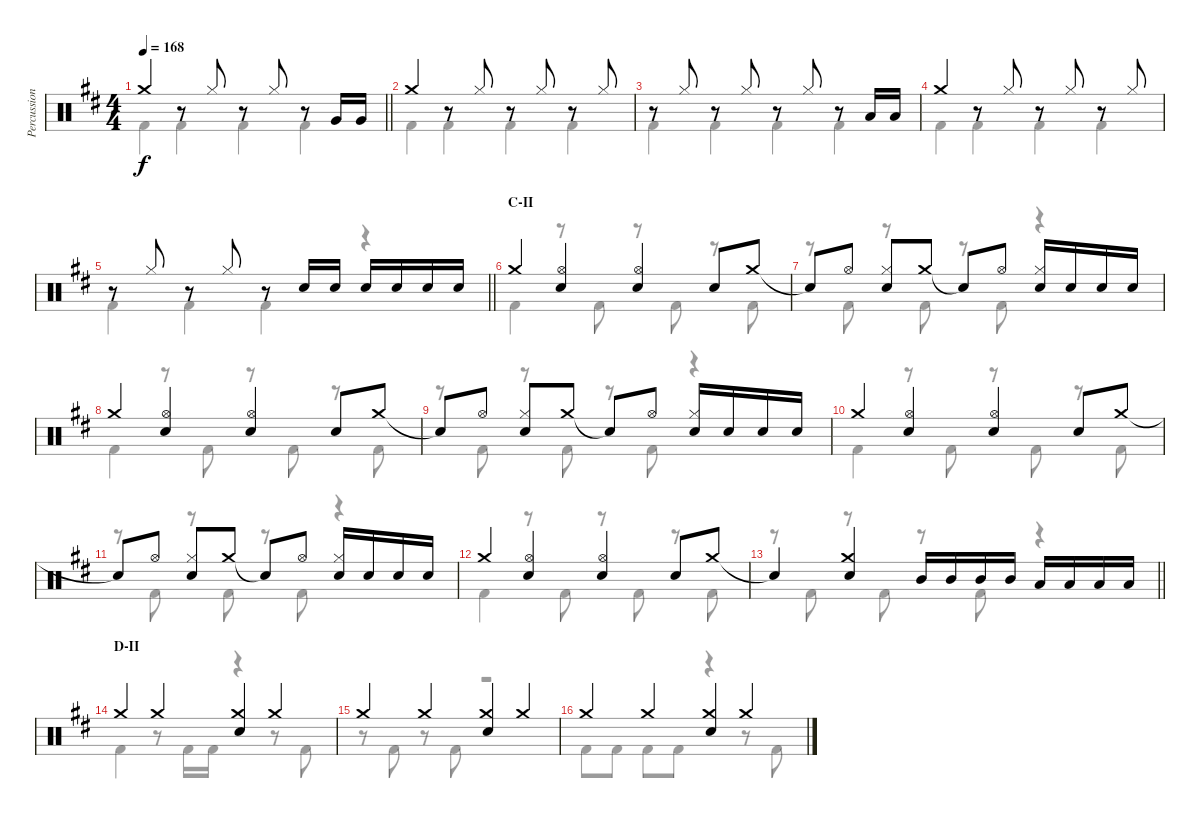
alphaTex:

\track ("Percussion" "Percussion") {instrument percussion}
\staff {score}
\articulation defaults
\voice
\ts (4 4)
\tempo 168
\clef neutral
\barLineRight lightlight
\ks d "Crash medium (hit)".4{dy f}
r.8 "Hi-Hat (closed)".8 r.8 "Hi-Hat (closed)".8 r.8 "Very Low Tom (hit)".16 "Very Low Tom (hit)".16 |
"Crash medium (hit)".4 r.8 "Hi-Hat (closed)".8 r.8 "Hi-Hat (closed)".8 r.8 "Hi-Hat (closed)".8 |
r.8 "Hi-Hat (closed)".8 r.8 "Hi-Hat (closed)".8 r.8 "Hi-Hat (closed)".8 r.8 "Low Tom (hit)".16 "Low Tom (hit)".16 |
"Crash medium (hit)".4 r.8 "Hi-Hat (closed)".8 r.8 "Hi-Hat (closed)".8 r.8 "Hi-Hat (closed)".8 |
\barLineRight lightlight
r.8 "Hi-Hat (closed)".8 r.8 "Hi-Hat (closed)".8 r.8 "Snare (hit) 2".16 "Snare (hit) 2".16 "Snare (hit) 2".16 "Snare (hit) 2".16 "Snare (hit) 2".16 "Snare (hit) 2".16 |
\section ("" "C-II")
"Crash medium (hit)".4 ("Hi-Hat (open)" "Snare (hit) 2").4 ("Hi-Hat (open)" "Snare (hit) 2").4 "Snare (hit) 2".8 "Crash medium (hit)".8 |
"Snare (hit)"{t}.8 "Hi-Hat (open)".8 ("Hi-Hat (closed)" "Snare (hit) 2").8 "Crash medium (hit)".8 "Snare (hit)"{t}.8 "Hi-Hat (open)".8 ("Hi-Hat (closed)" "Snare (hit) 2").16 "Snare (hit) 2".16 "Snare (hit) 2".16 "Snare (hit) 2".16 |
"Crash medium (hit)".4 ("Hi-Hat (open)" "Snare (hit) 2").4 ("Hi-Hat (open)" "Snare (hit) 2").4 "Snare (hit) 2".8 "Crash medium (hit)".8 |
"Snare (hit)"{t}.8 "Hi-Hat (open)".8 ("Hi-Hat (closed)" "Snare (hit) 2").8 "Crash medium (hit)".8 "Snare (hit)"{t}.8 "Hi-Hat (open)".8 ("Hi-Hat (closed)" "Snare (hit) 2").16 "Snare (hit) 2".16 "Snare (hit) 2".16 "Snare (hit) 2".16 |
"Crash medium (hit)".4 ("Hi-Hat (open)" "Snare (hit) 2").4 ("Hi-Hat (open)" "Snare (hit) 2").4 "Snare (hit) 2".8 "Crash medium (hit)".8 |
"Snare (hit)"{t}.8 "Hi-Hat (open)".8 ("Hi-Hat (closed)" "Snare (hit) 2").8 "Crash medium (hit)".8 "Snare (hit)"{t}.8 "Hi-Hat (open)".8 ("Hi-Hat (closed)" "Snare (hit) 2").16 "Snare (hit) 2".16 "Snare (hit) 2".16 "Snare (hit) 2".16 |
"Crash medium (hit)".4 ("Hi-Hat (open)" "Snare (hit) 2").4 ("Hi-Hat (open)" "Snare (hit) 2").4 "Snare (hit) 2".8 "Crash medium (hit)".8 |
\barLineRight lightlight "Snare (hit)"{t}.4
("Crash medium (hit)" "Snare (hit) 2").4 "Mid Tom (hit)".16 "Mid Tom (hit)".16 "Mid Tom (hit)".16 "Mid Tom (hit)".16 "Low Tom (hit)".16 "Low Tom (hit)".16 "Low Tom (hit)".16 "Low Tom (hit)".16 |
\section ("" "D-II")
"Crash medium (hit)".4 "Crash medium (hit)".4 ("Crash medium (hit)" "Snare (hit) 2").4 "Crash medium (hit)".4 |
"Crash medium (hit)".4 "Crash medium (hit)".4 ("Crash medium (hit)" "Snare (hit) 2").4 "Crash medium (hit)".4 |
"Crash medium (hit)".4 "Crash medium (hit)".4 ("Crash medium (hit)" "Snare (hit) 2").4 "Crash medium (hit)".4
\voice
\clef neutral
\ottava regular
\simile none
\barLineRight lightlight
\ks d "Kick (hit) 2".4{dy f} "Kick (hit) 2".4 "Kick (hit) 2".4 "Kick (hit) 2".4
|
"Kick (hit) 2".4 "Kick (hit) 2".4 "Kick (hit) 2".4 "Kick (hit) 2".4 |
"Kick (hit) 2".4 "Kick (hit) 2".4 "Kick (hit) 2".4 "Kick (hit) 2".4 |
"Kick (hit) 2".4 "Kick (hit) 2".4 "Kick (hit) 2".4 "Kick (hit) 2".4 |
\barLineRight lightlight "Kick (hit) 2".4 "Kick (hit) 2".4 "Kick (hit) 2".4
r.4 |
"Kick (hit) 2".4 r.8 "Kick (hit) 2".8 r.8 "Kick (hit) 2".8 r.8 "Kick (hit) 2".8 |
r.8 "Kick (hit) 2".8 r.8 "Kick (hit) 2".8 r.8 "Kick (hit) 2".8 r.4 |
"Kick (hit) 2".4 r.8 "Kick (hit) 2".8 r.8 "Kick (hit) 2".8 r.8 "Kick (hit) 2".8 |
r.8 "Kick (hit) 2".8 r.8 "Kick (hit) 2".8 r.8 "Kick (hit) 2".8 r.4 |
"Kick (hit) 2".4 r.8 "Kick (hit) 2".8 r.8 "Kick (hit) 2".8 r.8 "Kick (hit) 2".8 |
r.8 "Kick (hit) 2".8 r.8 "Kick (hit) 2".8 r.8 "Kick (hit) 2".8 r.4 |
"Kick (hit) 2".4 r.8 "Kick (hit) 2".8 r.8 "Kick (hit) 2".8 r.8 "Kick (hit) 2".8 |
\barLineRight lightlight
r.8 "Kick (hit) 2".8 r.8 "Kick (hit) 2".8 r.8 "Kick (hit) 2".8 r.4 |
"Kick (hit) 2".4 r.8 "Kick (hit) 2".16 "Kick (hit) 2".16 r.4 r.8 "Kick (hit) 2".8 |
r.8 "Kick (hit) 2".8 r.8 "Kick (hit) 2".8 r.2 |
"Kick (hit) 2".8 "Kick (hit) 2".8 "Kick (hit) 2".8 "Kick (hit) 2".8 r.4 r.8 "Kick (hit) 2".8
